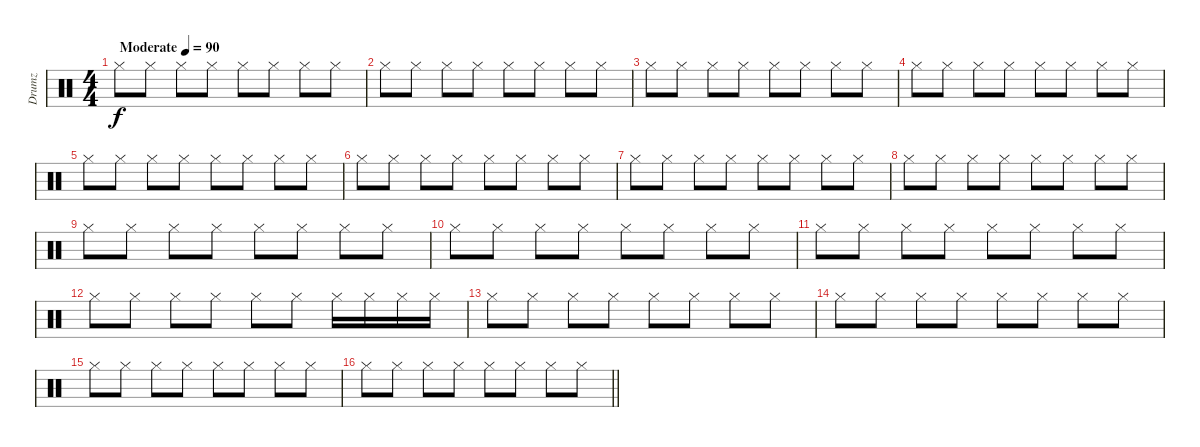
\track ("Drumz" "Drumz") {instrument percussion}
\staff {score}
\articulation defaults
\ts (4 4)
\tempo (90 "Moderate")
\clef neutral
\ks c "Hi-Hat (closed)".8{dy f} "Hi-Hat (closed)".8 "Hi-Hat (closed)".8 "Hi-Hat (closed)".8 "Hi-Hat (closed)".8 "Hi-Hat (closed)".8 "Hi-Hat (closed)".8 "Hi-Hat (closed)".8
|
"Hi-Hat (closed)".8 "Hi-Hat (closed)".8 "Hi-Hat (closed)".8 "Hi-Hat (closed)".8 "Hi-Hat (closed)".8 "Hi-Hat (closed)".8 "Hi-Hat (closed)".8 "Hi-Hat (closed)".8 |
"Hi-Hat (closed)".8 "Hi-Hat (closed)".8 "Hi-Hat (closed)".8 "Hi-Hat (closed)".8 "Hi-Hat (closed)".8 "Hi-Hat (closed)".8 "Hi-Hat (closed)".8 "Hi-Hat (closed)".8 |
"Hi-Hat (closed)".8 "Hi-Hat (closed)".8 "Hi-Hat (closed)".8 "Hi-Hat (closed)".8 "Hi-Hat (closed)".8 "Hi-Hat (closed)".8 "Hi-Hat (closed)".8 "Hi-Hat (closed)".8 |
"Hi-Hat (closed)".8 "Hi-Hat (closed)".8 "Hi-Hat (closed)".8 "Hi-Hat (closed)".8 "Hi-Hat (closed)".8 "Hi-Hat (closed)".8 "Hi-Hat (closed)".8 "Hi-Hat (closed)".8 |
"Hi-Hat (closed)".8 "Hi-Hat (closed)".8 "Hi-Hat (closed)".8 "Hi-Hat (closed)".8 "Hi-Hat (closed)".8 "Hi-Hat (closed)".8 "Hi-Hat (closed)".8 "Hi-Hat (closed)".8 |
"Hi-Hat (closed)".8 "Hi-Hat (closed)".8 "Hi-Hat (closed)".8 "Hi-Hat (closed)".8 "Hi-Hat (closed)".8 "Hi-Hat (closed)".8 "Hi-Hat (closed)".8 "Hi-Hat (closed)".8 |
"Hi-Hat (closed)".8 "Hi-Hat (closed)".8 "Hi-Hat (closed)".8 "Hi-Hat (closed)".8 "Hi-Hat (closed)".8 "Hi-Hat (closed)".8 "Hi-Hat (closed)".8 "Hi-Hat (closed)".8 |
"Hi-Hat (closed)".8 "Hi-Hat (closed)".8 "Hi-Hat (closed)".8 "Hi-Hat (closed)".8 "Hi-Hat (closed)".8 "Hi-Hat (closed)".8 "Hi-Hat (closed)".8 "Hi-Hat (closed)".8 |
"Hi-Hat (closed)".8 "Hi-Hat (closed)".8 "Hi-Hat (closed)".8 "Hi-Hat (closed)".8 "Hi-Hat (closed)".8 "Hi-Hat (closed)".8 "Hi-Hat (closed)".8 "Hi-Hat (closed)".8 |
"Hi-Hat (closed)".8 "Hi-Hat (closed)".8 "Hi-Hat (closed)".8 "Hi-Hat (closed)".8 "Hi-Hat (closed)".8 "Hi-Hat (closed)".8 "Hi-Hat (closed)".8 "Hi-Hat (closed)".8 |
"Hi-Hat (closed)".8 "Hi-Hat (closed)".8 "Hi-Hat (closed)".8 "Hi-Hat (closed)".8 "Hi-Hat (closed)".8 "Hi-Hat (closed)".8 "Hi-Hat (closed)".16 "Hi-Hat (closed)".16 "Hi-Hat (closed)".16 "Hi-Hat (closed)".16 |
"Hi-Hat (closed)".8 "Hi-Hat (closed)".8 "Hi-Hat (closed)".8 "Hi-Hat (closed)".8 "Hi-Hat (closed)".8 "Hi-Hat (closed)".8 "Hi-Hat (closed)".8 "Hi-Hat (closed)".8 |
"Hi-Hat (closed)".8 "Hi-Hat (closed)".8 "Hi-Hat (closed)".8 "Hi-Hat (closed)".8 "Hi-Hat (closed)".8 "Hi-Hat (closed)".8 "Hi-Hat (closed)".8 "Hi-Hat (closed)".8 |
"Hi-Hat (closed)".8 "Hi-Hat (closed)".8 "Hi-Hat (closed)".8 "Hi-Hat (closed)".8 "Hi-Hat (closed)".8 "Hi-Hat (closed)".8 "Hi-Hat (closed)".8 "Hi-Hat (closed)".8 |
\barLineRight lightlight "Hi-Hat (closed)".8 "Hi-Hat (closed)".8 "Hi-Hat (closed)".8 "Hi-Hat (closed)".8 "Hi-Hat (closed)".8 "Hi-Hat (closed)".8 "Hi-Hat (closed)".8 "Hi-Hat (closed)".8
